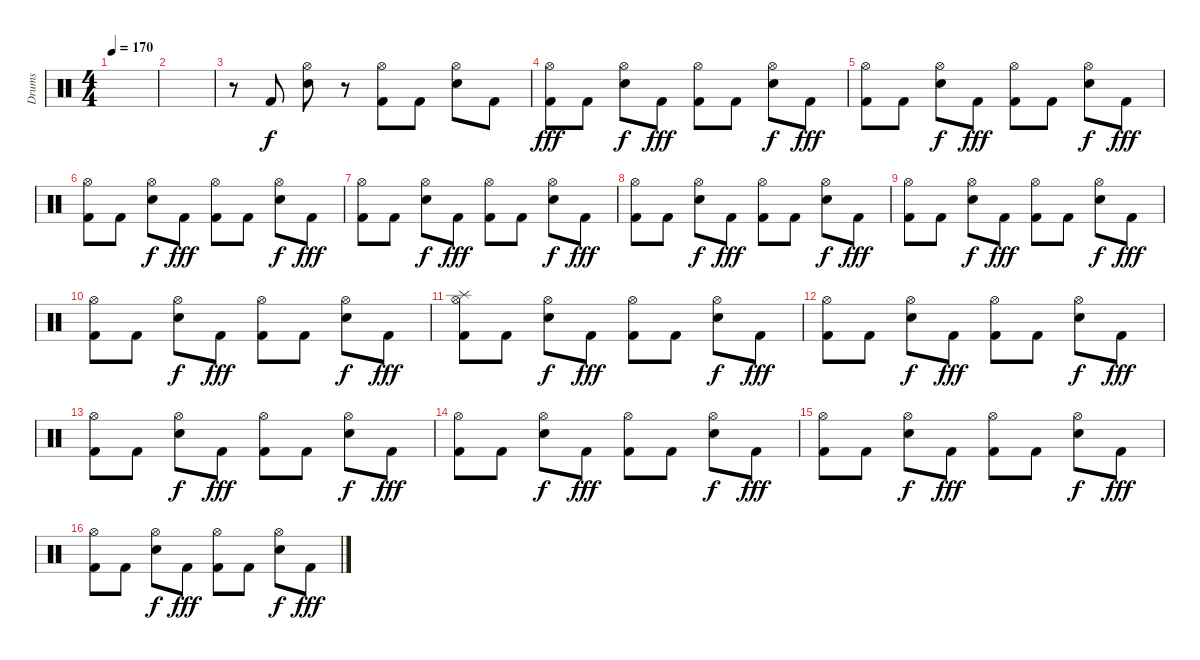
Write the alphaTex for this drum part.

\track ("Drums" "Drums") {instrument percussion}
\staff {score}
\articulation defaults
\ts (4 4)
\tempo 170
\clef neutral
\ks c
|
|
r.8 "Kick (hit) 2".8 ("Hi-Hat (open)" "Electric Snare (hit)").8 r.8 ("Hi-Hat (open)" "Kick (hit) 2").8 "Kick (hit) 2".8 ("Hi-Hat (open)" "Electric Snare (hit)").8 "Kick (hit) 2".8 |
("Hi-Hat (open)" "Kick (hit) 2").8{dy fff} "Kick (hit) 2".8 ("Hi-Hat (open)" "Snare (hit) 2").8{dy f} "Kick (hit) 2".8{dy fff} ("Hi-Hat (open)" "Kick (hit) 2").8 "Kick (hit) 2".8 ("Hi-Hat (open)" "Snare (hit) 2").8{dy f} "Kick (hit) 2".8{dy fff} |
("Hi-Hat (open)" "Kick (hit) 2").8 "Kick (hit) 2".8 ("Hi-Hat (open)" "Snare (hit) 2").8{dy f} "Kick (hit) 2".8{dy fff} ("Hi-Hat (open)" "Kick (hit) 2").8 "Kick (hit) 2".8 ("Hi-Hat (open)" "Snare (hit) 2").8{dy f} "Kick (hit) 2".8{dy fff} |
("Hi-Hat (open)" "Kick (hit) 2").8 "Kick (hit) 2".8 ("Hi-Hat (open)" "Snare (hit) 2").8{dy f} "Kick (hit) 2".8{dy fff} ("Hi-Hat (open)" "Kick (hit) 2").8 "Kick (hit) 2".8 ("Hi-Hat (open)" "Snare (hit) 2").8{dy f} "Kick (hit) 2".8{dy fff} |
("Hi-Hat (open)" "Kick (hit) 2").8 "Kick (hit) 2".8 ("Hi-Hat (open)" "Snare (hit) 2").8{dy f} "Kick (hit) 2".8{dy fff} ("Hi-Hat (open)" "Kick (hit) 2").8 "Kick (hit) 2".8 ("Hi-Hat (open)" "Snare (hit) 2").8{dy f} "Kick (hit) 2".8{dy fff} |
("Hi-Hat (open)" "Kick (hit) 2").8 "Kick (hit) 2".8 ("Hi-Hat (open)" "Snare (hit) 2").8{dy f} "Kick (hit) 2".8{dy fff} ("Hi-Hat (open)" "Kick (hit) 2").8 "Kick (hit) 2".8 ("Hi-Hat (open)" "Snare (hit) 2").8{dy f} "Kick (hit) 2".8{dy fff} |
("Hi-Hat (open)" "Kick (hit) 2").8 "Kick (hit) 2".8 ("Hi-Hat (open)" "Snare (hit) 2").8{dy f} "Kick (hit) 2".8{dy fff} ("Hi-Hat (open)" "Kick (hit) 2").8 "Kick (hit) 2".8 ("Hi-Hat (open)" "Snare (hit) 2").8{dy f} "Kick (hit) 2".8{dy fff} |
("Hi-Hat (open)" "Kick (hit) 2").8 "Kick (hit) 2".8 ("Hi-Hat (open)" "Snare (hit) 2").8{dy f} "Kick (hit) 2".8{dy fff} ("Hi-Hat (open)" "Kick (hit) 2").8 "Kick (hit) 2".8 ("Hi-Hat (open)" "Snare (hit) 2").8{dy f} "Kick (hit) 2".8{dy fff} |
("Hi-Hat (open)" "Splash (hit)" "Kick (hit) 2").8 "Kick (hit) 2".8 ("Hi-Hat (open)" "Snare (hit) 2").8{dy f} "Kick (hit) 2".8{dy fff} ("Hi-Hat (open)" "Kick (hit) 2").8 "Kick (hit) 2".8 ("Hi-Hat (open)" "Snare (hit) 2").8{dy f} "Kick (hit) 2".8{dy fff} |
("Hi-Hat (open)" "Kick (hit) 2").8 "Kick (hit) 2".8 ("Hi-Hat (open)" "Snare (hit) 2").8{dy f} "Kick (hit) 2".8{dy fff} ("Hi-Hat (open)" "Kick (hit) 2").8 "Kick (hit) 2".8 ("Hi-Hat (open)" "Snare (hit) 2").8{dy f} "Kick (hit) 2".8{dy fff} |
("Hi-Hat (open)" "Kick (hit) 2").8 "Kick (hit) 2".8 ("Hi-Hat (open)" "Snare (hit) 2").8{dy f} "Kick (hit) 2".8{dy fff} ("Hi-Hat (open)" "Kick (hit) 2").8 "Kick (hit) 2".8 ("Hi-Hat (open)" "Snare (hit) 2").8{dy f} "Kick (hit) 2".8{dy fff} |
("Hi-Hat (open)" "Kick (hit) 2").8 "Kick (hit) 2".8 ("Hi-Hat (open)" "Snare (hit) 2").8{dy f} "Kick (hit) 2".8{dy fff} ("Hi-Hat (open)" "Kick (hit) 2").8 "Kick (hit) 2".8 ("Hi-Hat (open)" "Snare (hit) 2").8{dy f} "Kick (hit) 2".8{dy fff} |
("Hi-Hat (open)" "Kick (hit) 2").8 "Kick (hit) 2".8 ("Hi-Hat (open)" "Snare (hit) 2").8{dy f} "Kick (hit) 2".8{dy fff} ("Hi-Hat (open)" "Kick (hit) 2").8 "Kick (hit) 2".8 ("Hi-Hat (open)" "Snare (hit) 2").8{dy f} "Kick (hit) 2".8{dy fff} |
("Hi-Hat (open)" "Kick (hit) 2").8 "Kick (hit) 2".8 ("Hi-Hat (open)" "Snare (hit) 2").8{dy f} "Kick (hit) 2".8{dy fff} ("Hi-Hat (open)" "Kick (hit) 2").8 "Kick (hit) 2".8 ("Hi-Hat (open)" "Snare (hit) 2").8{dy f} "Kick (hit) 2".8{dy fff}
